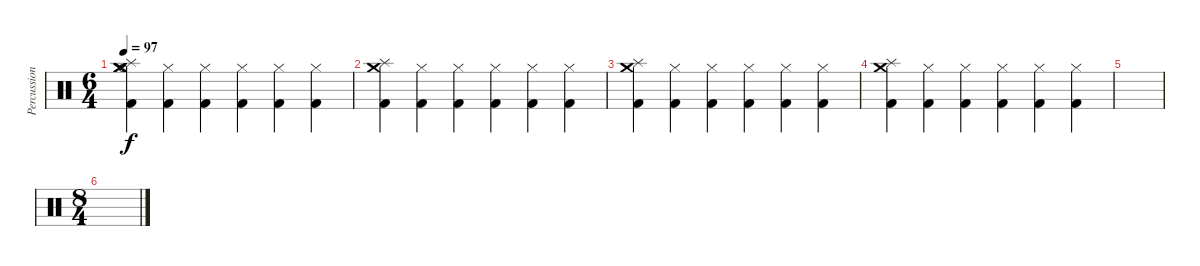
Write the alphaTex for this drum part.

\track ("Percussion" "Percussion") {instrument percussion}
\staff {score}
\articulation defaults
\ts (6 4)
\tempo 97
\clef neutral
\ks c
("Crash medium (hit)" "Kick (hit) 2" "Crash medium (hit)" "Splash (hit)" "Hi-Hat (open)").4{dy f} ("Kick (hit) 2" "Hi-Hat (closed)").4 ("Kick (hit) 2" "Hi-Hat (closed)").4 ("Kick (hit) 2" "Hi-Hat (closed)").4 ("Kick (hit) 2" "Hi-Hat (closed)").4 ("Kick (hit) 2" "Hi-Hat (closed)").4 |
("Crash medium (hit)" "Kick (hit) 2" "Splash (hit)").4 ("Kick (hit) 2" "Hi-Hat (closed)").4 ("Kick (hit) 2" "Hi-Hat (closed)").4 ("Kick (hit) 2" "Hi-Hat (closed)").4 ("Kick (hit) 2" "Hi-Hat (closed)").4 ("Kick (hit) 2" "Hi-Hat (closed)").4 |
("Crash medium (hit)" "Kick (hit) 2" "Splash (hit)").4 ("Kick (hit) 2" "Hi-Hat (closed)").4 ("Kick (hit) 2" "Hi-Hat (closed)").4 ("Kick (hit) 2" "Hi-Hat (closed)").4 ("Kick (hit) 2" "Hi-Hat (closed)").4 ("Kick (hit) 2" "Hi-Hat (closed)").4 |
("Crash medium (hit)" "Kick (hit) 2" "Splash (hit)").4 ("Kick (hit) 2" "Hi-Hat (closed)").4 ("Kick (hit) 2" "Hi-Hat (closed)").4 ("Kick (hit) 2" "Hi-Hat (closed)").4 ("Kick (hit) 2" "Hi-Hat (closed)").4 ("Kick (hit) 2" "Hi-Hat (closed)").4 |
|
\ts (8 4)
